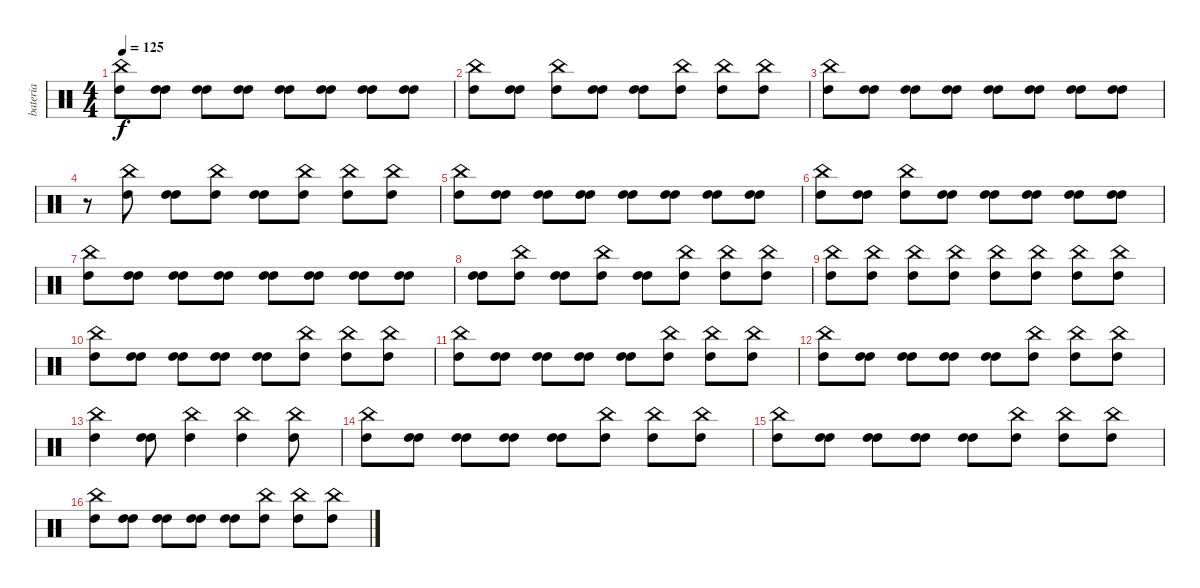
\track ("bateria" "bateria") {instrument percussion}
\staff {score}
\articulation defaults
\ts (4 4)
\tempo 125
\clef neutral
\ks c
("China (hit)" "High Tom (hit)").8{dy f} ("High Tom (hit)" "High Tom (hit)").8 ("High Tom (hit)" "High Tom (hit)").8 ("High Tom (hit)" "High Tom (hit)").8 ("High Tom (hit)" "High Tom (hit)").8 ("High Tom (hit)" "High Tom (hit)").8 ("High Tom (hit)" "High Tom (hit)").8 ("High Tom (hit)" "High Tom (hit)").8 |
("China (hit)" "High Tom (hit)").8 ("High Tom (hit)" "High Tom (hit)").8 ("China (hit)" "High Tom (hit)").8 ("High Tom (hit)" "High Tom (hit)").8 ("High Tom (hit)" "High Tom (hit)").8 ("China (hit)" "High Tom (hit)").8 ("China (hit)" "High Tom (hit)").8 ("China (hit)" "High Tom (hit)").8 |
("China (hit)" "High Tom (hit)").8 ("High Tom (hit)" "High Tom (hit)").8 ("High Tom (hit)" "High Tom (hit)").8 ("High Tom (hit)" "High Tom (hit)").8 ("High Tom (hit)" "High Tom (hit)").8 ("High Tom (hit)" "High Tom (hit)").8 ("High Tom (hit)" "High Tom (hit)").8 ("High Tom (hit)" "High Tom (hit)").8 |
r.8 ("China (hit)" "High Tom (hit)").8 ("High Tom (hit)" "High Tom (hit)").8 ("China (hit)" "High Tom (hit)").8 ("High Tom (hit)" "High Tom (hit)").8 ("China (hit)" "High Tom (hit)").8 ("China (hit)" "High Tom (hit)").8 ("China (hit)" "High Tom (hit)").8 |
("China (hit)" "High Tom (hit)").8 ("High Tom (hit)" "High Tom (hit)").8 ("High Tom (hit)" "High Tom (hit)").8 ("High Tom (hit)" "High Tom (hit)").8 ("High Tom (hit)" "High Tom (hit)").8 ("High Tom (hit)" "High Tom (hit)").8 ("High Tom (hit)" "High Tom (hit)").8 ("High Tom (hit)" "High Tom (hit)").8 |
("China (hit)" "High Tom (hit)").8 ("High Tom (hit)" "High Tom (hit)").8 ("China (hit)" "High Tom (hit)").8 ("High Tom (hit)" "High Tom (hit)").8 ("High Tom (hit)" "High Tom (hit)").8 ("High Tom (hit)" "High Tom (hit)").8 ("High Tom (hit)" "High Tom (hit)").8 ("High Tom (hit)" "High Tom (hit)").8 |
("China (hit)" "High Tom (hit)").8 ("High Tom (hit)" "High Tom (hit)").8 ("High Tom (hit)" "High Tom (hit)").8 ("High Tom (hit)" "High Tom (hit)").8 ("High Tom (hit)" "High Tom (hit)").8 ("High Tom (hit)" "High Tom (hit)").8 ("High Tom (hit)" "High Tom (hit)").8 ("High Tom (hit)" "High Tom (hit)").8 |
("High Tom (hit)" "High Tom (hit)").8 ("China (hit)" "High Tom (hit)").8 ("High Tom (hit)" "High Tom (hit)").8 ("China (hit)" "High Tom (hit)").8 ("High Tom (hit)" "High Tom (hit)").8 ("China (hit)" "High Tom (hit)").8 ("China (hit)" "High Tom (hit)").8 ("China (hit)" "High Tom (hit)").8 |
("China (hit)" "High Tom (hit)").8 ("China (hit)" "High Tom (hit)").8 ("China (hit)" "High Tom (hit)").8 ("China (hit)" "High Tom (hit)").8 ("China (hit)" "High Tom (hit)").8 ("China (hit)" "High Tom (hit)").8 ("China (hit)" "High Tom (hit)").8 ("China (hit)" "High Tom (hit)").8 |
("China (hit)" "High Tom (hit)").8 ("High Tom (hit)" "High Tom (hit)").8 ("High Tom (hit)" "High Tom (hit)").8 ("High Tom (hit)" "High Tom (hit)").8 ("High Tom (hit)" "High Tom (hit)").8 ("China (hit)" "High Tom (hit)").8 ("China (hit)" "High Tom (hit)").8 ("China (hit)" "High Tom (hit)").8 |
("China (hit)" "High Tom (hit)").8 ("High Tom (hit)" "High Tom (hit)").8 ("High Tom (hit)" "High Tom (hit)").8 ("High Tom (hit)" "High Tom (hit)").8 ("High Tom (hit)" "High Tom (hit)").8 ("China (hit)" "High Tom (hit)").8 ("China (hit)" "High Tom (hit)").8 ("China (hit)" "High Tom (hit)").8 |
("China (hit)" "High Tom (hit)").8 ("High Tom (hit)" "High Tom (hit)").8 ("High Tom (hit)" "High Tom (hit)").8 ("High Tom (hit)" "High Tom (hit)").8 ("High Tom (hit)" "High Tom (hit)").8 ("China (hit)" "High Tom (hit)").8 ("China (hit)" "High Tom (hit)").8 ("China (hit)" "High Tom (hit)").8 |
("China (hit)" "High Tom (hit)").4 ("High Tom (hit)" "High Tom (hit)").8 ("China (hit)" "High Tom (hit)").4 ("China (hit)" "High Tom (hit)").4 ("China (hit)" "High Tom (hit)").8 |
("China (hit)" "High Tom (hit)").8 ("High Tom (hit)" "High Tom (hit)").8 ("High Tom (hit)" "High Tom (hit)").8 ("High Tom (hit)" "High Tom (hit)").8 ("High Tom (hit)" "High Tom (hit)").8 ("China (hit)" "High Tom (hit)").8 ("China (hit)" "High Tom (hit)").8 ("China (hit)" "High Tom (hit)").8 |
("China (hit)" "High Tom (hit)").8 ("High Tom (hit)" "High Tom (hit)").8 ("High Tom (hit)" "High Tom (hit)").8 ("High Tom (hit)" "High Tom (hit)").8 ("High Tom (hit)" "High Tom (hit)").8 ("China (hit)" "High Tom (hit)").8 ("China (hit)" "High Tom (hit)").8 ("China (hit)" "High Tom (hit)").8 |
("China (hit)" "High Tom (hit)").8 ("High Tom (hit)" "High Tom (hit)").8 ("High Tom (hit)" "High Tom (hit)").8 ("High Tom (hit)" "High Tom (hit)").8 ("High Tom (hit)" "High Tom (hit)").8 ("China (hit)" "High Tom (hit)").8 ("China (hit)" "High Tom (hit)").8 ("China (hit)" "High Tom (hit)").8
